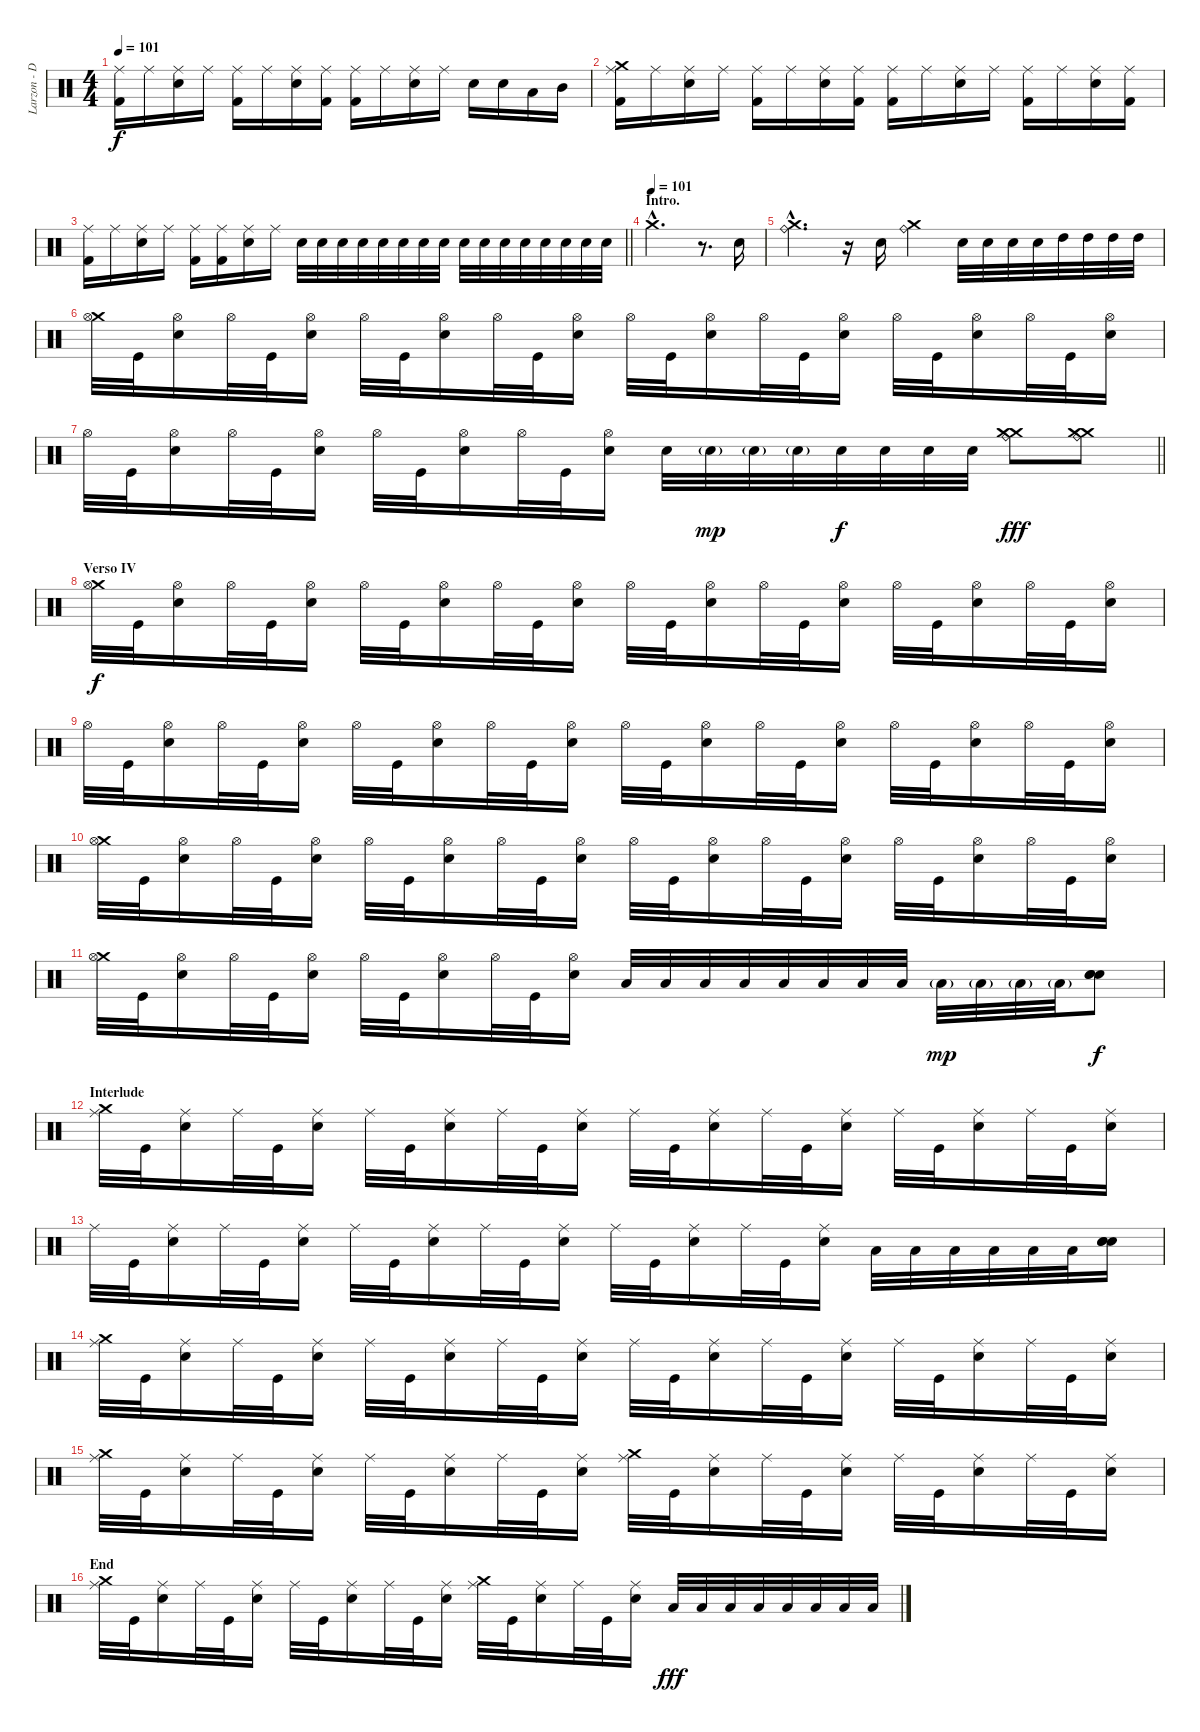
\track ("Larzon - Drums" "Larzon - D") {instrument percussion}
\staff {score}
\articulation defaults
\ts (4 4)
\tempo 101
\clef neutral
\ks c
("Kick (hit) 2" "Ride (middle)").16{dy f} "Ride (middle)".16 ("Electric Snare (hit)" "Ride (middle)").16 "Ride (middle)".16 ("Kick (hit) 2" "Ride (middle)").16 "Ride (middle)".16 ("Electric Snare (hit)" "Ride (middle)").16 ("Kick (hit) 2" "Ride (middle)").16 ("Kick (hit) 2" "Ride (middle)").16 "Ride (middle)".16 ("Electric Snare (hit)" "Ride (middle)").16 "Ride (middle)".16 "Electric Snare (hit)".16 "Electric Snare (hit)".16 "Low Tom (hit)".16 "Mid Tom (hit)".16 |
("Kick (hit) 2" "Crash medium (hit)" "Ride (middle)").16 "Ride (middle)".16 ("Electric Snare (hit)" "Ride (middle)").16 "Ride (middle)".16 ("Kick (hit) 2" "Ride (middle)").16 "Ride (middle)".16 ("Electric Snare (hit)" "Ride (middle)").16 ("Kick (hit) 2" "Ride (middle)").16 ("Kick (hit) 2" "Ride (middle)").16 "Ride (middle)".16 ("Electric Snare (hit)" "Ride (middle)").16 "Ride (middle)".16 ("Kick (hit) 2" "Ride (middle)").16 "Ride (middle)".16 ("Electric Snare (hit)" "Ride (middle)").16 ("Kick (hit) 2" "Ride (middle)").16 |
\barLineRight lightlight
("Kick (hit) 2" "Ride (middle)").16 "Ride (middle)".16 ("Electric Snare (hit)" "Ride (middle)").16 "Ride (middle)".16 ("Kick (hit) 2" "Ride (middle)").16 ("Kick (hit) 2" "Ride (middle)").16 ("Electric Snare (hit)" "Ride (middle)").16 "Ride (middle)".16 "Electric Snare (hit)".32 "Electric Snare (hit)".32 "Electric Snare (hit)".32 "Electric Snare (hit)".32 "Electric Snare (hit)".32 "Electric Snare (hit)".32 "Electric Snare (hit)".32 "Electric Snare (hit)".32 "Electric Snare (hit)".32 "Electric Snare (hit)".32 "Electric Snare (hit)".32 "Electric Snare (hit)".32 "Electric Snare (hit)".32 "Electric Snare (hit)".32 "Electric Snare (hit)".32 "Electric Snare (hit)".32 |
\section ("" "Intro.")
\tempo (101)
"Crash medium (hit)"{hac}.2{d} r.8{d} "Electric Snare (hit)".16 |
("Crash medium (hit)"{hac} "Ride (bell)"{hac}).4{d} r.16 "Electric Snare (hit)".16 ("Crash medium (hit)" "Ride (bell)").4 "Electric Snare (hit)".32 "Electric Snare (hit)".32 "Electric Snare (hit)".32 "Electric Snare (hit)".32 "High Tom (hit)".32 "High Tom (hit)".32 "High Tom (hit)".32 "High Tom (hit)".32 |
("Crash medium (hit)" "Hi-Hat (open)").32 "Kick (hit)".32 ("Electric Snare (hit)" "Hi-Hat (open)").16 "Hi-Hat (open)".32 "Kick (hit)".32 ("Electric Snare (hit)" "Hi-Hat (open)").16 "Hi-Hat (open)".32 "Kick (hit)".32 ("Electric Snare (hit)" "Hi-Hat (open)").16 "Hi-Hat (open)".32 "Kick (hit)".32 ("Electric Snare (hit)" "Hi-Hat (open)").16 "Hi-Hat (open)".32 "Kick (hit)".32 ("Electric Snare (hit)" "Hi-Hat (open)").16 "Hi-Hat (open)".32 "Kick (hit)".32 ("Electric Snare (hit)" "Hi-Hat (open)").16 "Hi-Hat (open)".32 "Kick (hit)".32 ("Electric Snare (hit)" "Hi-Hat (open)").16 "Hi-Hat (open)".32 "Kick (hit)".32 ("Electric Snare (hit)" "Hi-Hat (open)").16 |
\barLineRight lightlight "Hi-Hat (open)".32 "Kick (hit)".32
("Electric Snare (hit)" "Hi-Hat (open)").16 "Hi-Hat (open)".32 "Kick (hit)".32 ("Electric Snare (hit)" "Hi-Hat (open)").16 "Hi-Hat (open)".32 "Kick (hit)".32 ("Electric Snare (hit)" "Hi-Hat (open)").16 "Hi-Hat (open)".32 "Kick (hit)".32 ("Electric Snare (hit)" "Hi-Hat (open)").16 "Electric Snare (hit)".32 "Electric Snare (hit)"{g}.32{dy mp} "Electric Snare (hit)"{g}.32 "Electric Snare (hit)"{g}.32 "Electric Snare (hit)".32{dy f} "Electric Snare (hit)".32 "Electric Snare (hit)".32 "Electric Snare (hit)".32 ("Ride (bell)" "Crash medium (hit)" "Crash medium (hit)").8{dy fff} ("Ride (bell)" "Crash medium (hit)" "Crash medium (hit)").8 |
\section ("" "Verso IV")
("Crash medium (hit)" "Hi-Hat (open)").32{dy f} "Kick (hit)".32 ("Electric Snare (hit)" "Hi-Hat (open)").16 "Hi-Hat (open)".32 "Kick (hit)".32 ("Electric Snare (hit)" "Hi-Hat (open)").16 "Hi-Hat (open)".32 "Kick (hit)".32 ("Electric Snare (hit)" "Hi-Hat (open)").16 "Hi-Hat (open)".32 "Kick (hit)".32 ("Electric Snare (hit)" "Hi-Hat (open)").16 "Hi-Hat (open)".32 "Kick (hit)".32 ("Electric Snare (hit)" "Hi-Hat (open)").16 "Hi-Hat (open)".32 "Kick (hit)".32 ("Electric Snare (hit)" "Hi-Hat (open)").16 "Hi-Hat (open)".32 "Kick (hit)".32 ("Electric Snare (hit)" "Hi-Hat (open)").16 "Hi-Hat (open)".32 "Kick (hit)".32 ("Electric Snare (hit)" "Hi-Hat (open)").16 |
"Hi-Hat (open)".32 "Kick (hit)".32 ("Electric Snare (hit)" "Hi-Hat (open)").16 "Hi-Hat (open)".32 "Kick (hit)".32 ("Electric Snare (hit)" "Hi-Hat (open)").16 "Hi-Hat (open)".32 "Kick (hit)".32 ("Electric Snare (hit)" "Hi-Hat (open)").16 "Hi-Hat (open)".32 "Kick (hit)".32 ("Electric Snare (hit)" "Hi-Hat (open)").16 "Hi-Hat (open)".32 "Kick (hit)".32 ("Electric Snare (hit)" "Hi-Hat (open)").16 "Hi-Hat (open)".32 "Kick (hit)".32 ("Electric Snare (hit)" "Hi-Hat (open)").16 "Hi-Hat (open)".32 "Kick (hit)".32 ("Electric Snare (hit)" "Hi-Hat (open)").16 "Hi-Hat (open)".32 "Kick (hit)".32 ("Electric Snare (hit)" "Hi-Hat (open)").16 |
("Crash medium (hit)" "Hi-Hat (open)").32 "Kick (hit)".32 ("Electric Snare (hit)" "Hi-Hat (open)").16 "Hi-Hat (open)".32 "Kick (hit)".32 ("Electric Snare (hit)" "Hi-Hat (open)").16 "Hi-Hat (open)".32 "Kick (hit)".32 ("Electric Snare (hit)" "Hi-Hat (open)").16 "Hi-Hat (open)".32 "Kick (hit)".32 ("Electric Snare (hit)" "Hi-Hat (open)").16 "Hi-Hat (open)".32 "Kick (hit)".32 ("Electric Snare (hit)" "Hi-Hat (open)").16 "Hi-Hat (open)".32 "Kick (hit)".32 ("Electric Snare (hit)" "Hi-Hat (open)").16 "Hi-Hat (open)".32 "Kick (hit)".32 ("Electric Snare (hit)" "Hi-Hat (open)").16 "Hi-Hat (open)".32 "Kick (hit)".32 ("Electric Snare (hit)" "Hi-Hat (open)").16 |
("Crash medium (hit)" "Hi-Hat (open)").32 "Kick (hit)".32 ("Electric Snare (hit)" "Hi-Hat (open)").16 "Hi-Hat (open)".32 "Kick (hit)".32 ("Electric Snare (hit)" "Hi-Hat (open)").16 "Hi-Hat (open)".32 "Kick (hit)".32 ("Electric Snare (hit)" "Hi-Hat (open)").16 "Hi-Hat (open)".32 "Kick (hit)".32 ("Electric Snare (hit)" "Hi-Hat (open)").16 "Low Tom (hit)".32 "Low Tom (hit)".32 "Low Tom (hit)".32 "Low Tom (hit)".32 "Low Tom (hit)".32 "Low Tom (hit)".32 "Low Tom (hit)".32 "Low Tom (hit)".32 "Low Tom (hit)"{g}.32{dy mp} "Low Tom (hit)"{g}.32 "Low Tom (hit)"{g}.32 "Low Tom (hit)"{g}.32 ("Electric Snare (hit)" "Electric Snare (hit)" "Electric Snare (hit)").8{dy f} |
\section ("" "Interlude")
("Crash medium (hit)" "Ride (middle)").32 "Kick (hit)".32 ("Electric Snare (hit)" "Ride (middle)").16 "Ride (middle)".32 "Kick (hit)".32 ("Electric Snare (hit)" "Ride (middle)").16 "Ride (middle)".32 "Kick (hit)".32 ("Electric Snare (hit)" "Ride (middle)").16 "Ride (middle)".32 "Kick (hit)".32 ("Electric Snare (hit)" "Ride (middle)").16 "Ride (middle)".32 "Kick (hit)".32 ("Electric Snare (hit)" "Ride (middle)").16 "Ride (middle)".32 "Kick (hit)".32 ("Electric Snare (hit)" "Ride (middle)").16 "Ride (middle)".32 "Kick (hit)".32 ("Electric Snare (hit)" "Ride (middle)").16 "Ride (middle)".32 "Kick (hit)".32 ("Electric Snare (hit)" "Ride (middle)").16 |
"Ride (middle)".32 "Kick (hit)".32 ("Electric Snare (hit)" "Ride (middle)").16 "Ride (middle)".32 "Kick (hit)".32 ("Electric Snare (hit)" "Ride (middle)").16 "Ride (middle)".32 "Kick (hit)".32 ("Electric Snare (hit)" "Ride (middle)").16 "Ride (middle)".32 "Kick (hit)".32 ("Electric Snare (hit)" "Ride (middle)").16 "Ride (middle)".32 "Kick (hit)".32 ("Electric Snare (hit)" "Ride (middle)").16 "Ride (middle)".32 "Kick (hit)".32 ("Electric Snare (hit)" "Ride (middle)").16 "Low Tom (hit)".32 "Low Tom (hit)".32 "Low Tom (hit)".32 "Low Tom (hit)".32 "Low Tom (hit)".32 "Low Tom (hit)".32 ("Electric Snare (hit)" "Electric Snare (hit)" "Electric Snare (hit)").16 |
("Crash medium (hit)" "Ride (middle)").32 "Kick (hit)".32 ("Electric Snare (hit)" "Ride (middle)").16 "Ride (middle)".32 "Kick (hit)".32 ("Electric Snare (hit)" "Ride (middle)").16 "Ride (middle)".32 "Kick (hit)".32 ("Electric Snare (hit)" "Ride (middle)").16 "Ride (middle)".32 "Kick (hit)".32 ("Electric Snare (hit)" "Ride (middle)").16 "Ride (middle)".32 "Kick (hit)".32 ("Electric Snare (hit)" "Ride (middle)").16 "Ride (middle)".32 "Kick (hit)".32 ("Electric Snare (hit)" "Ride (middle)").16 "Ride (middle)".32 "Kick (hit)".32 ("Electric Snare (hit)" "Ride (middle)").16 "Ride (middle)".32 "Kick (hit)".32 ("Electric Snare (hit)" "Ride (middle)").16 |
("Crash medium (hit)" "Ride (middle)").32 "Kick (hit)".32 ("Electric Snare (hit)" "Ride (middle)").16 "Ride (middle)".32 "Kick (hit)".32 ("Electric Snare (hit)" "Ride (middle)").16 "Ride (middle)".32 "Kick (hit)".32 ("Electric Snare (hit)" "Ride (middle)").16 "Ride (middle)".32 "Kick (hit)".32 ("Electric Snare (hit)" "Ride (middle)").16 ("Crash medium (hit)" "Ride (middle)").32 "Kick (hit)".32 ("Electric Snare (hit)" "Ride (middle)").16 "Ride (middle)".32 "Kick (hit)".32 ("Electric Snare (hit)" "Ride (middle)").16 "Ride (middle)".32 "Kick (hit)".32 ("Electric Snare (hit)" "Ride (middle)").16 "Ride (middle)".32 "Kick (hit)".32 ("Electric Snare (hit)" "Ride (middle)").16 |
\section ("" "End")
("Crash medium (hit)" "Ride (middle)").32 "Kick (hit)".32 ("Electric Snare (hit)" "Ride (middle)").16 "Ride (middle)".32 "Kick (hit)".32 ("Electric Snare (hit)" "Ride (middle)").16 "Ride (middle)".32 "Kick (hit)".32 ("Electric Snare (hit)" "Ride (middle)").16 "Ride (middle)".32 "Kick (hit)".32 ("Electric Snare (hit)" "Ride (middle)").16 ("Crash medium (hit)" "Ride (middle)").32 "Kick (hit)".32 ("Electric Snare (hit)" "Ride (middle)").16 "Ride (middle)".32 "Kick (hit)".32 ("Electric Snare (hit)" "Ride (middle)").16 "Low Tom (hit)".32{dy fff} "Low Tom (hit)".32 "Low Tom (hit)".32 "Low Tom (hit)".32 "Low Tom (hit)".32 "Low Tom (hit)".32 "Low Tom (hit)".32 "Low Tom (hit)".32
